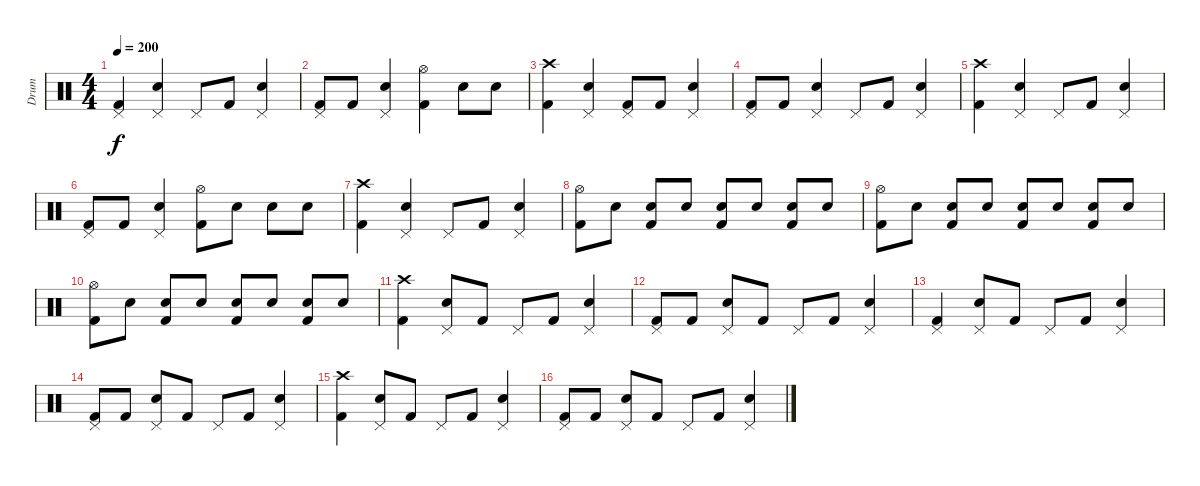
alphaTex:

\track ("Drum" "Drum") {instrument percussion}
\staff {score}
\articulation defaults
\ts (4 4)
\tempo 200
\clef neutral
\ks c
("Pedal Hi-Hat (hit)" "Kick (hit) 2").4{dy f} ("Pedal Hi-Hat (hit)" "Electric Snare (hit)").4 "Pedal Hi-Hat (hit)".8 "Kick (hit) 2".8 ("Pedal Hi-Hat (hit)" "Electric Snare (hit)").4 |
("Pedal Hi-Hat (hit)" "Kick (hit) 2").8 "Kick (hit) 2".8 ("Pedal Hi-Hat (hit)" "Electric Snare (hit)").4 ("Hi-Hat (open)" "Kick (hit) 2").4 "Electric Snare (hit)".8 "Electric Snare (hit)".8 |
("Crash high (hit)" "Kick (hit) 2").4 ("Pedal Hi-Hat (hit)" "Electric Snare (hit)").4 ("Pedal Hi-Hat (hit)" "Kick (hit) 2").8 "Kick (hit) 2".8 ("Pedal Hi-Hat (hit)" "Electric Snare (hit)").4 |
("Pedal Hi-Hat (hit)" "Kick (hit) 2").8 "Kick (hit) 2".8 ("Pedal Hi-Hat (hit)" "Electric Snare (hit)").4 "Pedal Hi-Hat (hit)".8 "Kick (hit) 2".8 ("Pedal Hi-Hat (hit)" "Electric Snare (hit)").4 |
("Crash high (hit)" "Kick (hit) 2").4 ("Pedal Hi-Hat (hit)" "Electric Snare (hit)").4 "Pedal Hi-Hat (hit)".8 "Kick (hit) 2".8 ("Pedal Hi-Hat (hit)" "Electric Snare (hit)").4 |
("Pedal Hi-Hat (hit)" "Kick (hit) 2").8 "Kick (hit) 2".8 ("Pedal Hi-Hat (hit)" "Electric Snare (hit)").4 ("Hi-Hat (open)" "Kick (hit) 2").8 "Electric Snare (hit)".8 "Electric Snare (hit)".8 "Electric Snare (hit)".8 |
("Crash high (hit)" "Kick (hit) 2").4 ("Pedal Hi-Hat (hit)" "Electric Snare (hit)").4 "Pedal Hi-Hat (hit)".8 "Kick (hit) 2".8 ("Pedal Hi-Hat (hit)" "Electric Snare (hit)").4 |
("Hi-Hat (open)" "Kick (hit) 2").8 "Electric Snare (hit)".8 ("Electric Snare (hit)" "Kick (hit) 2").8 "Electric Snare (hit)".8 ("Electric Snare (hit)" "Kick (hit) 2").8 "Electric Snare (hit)".8 ("Electric Snare (hit)" "Kick (hit) 2").8 "Electric Snare (hit)".8 |
("Hi-Hat (open)" "Kick (hit) 2").8 "Electric Snare (hit)".8 ("Electric Snare (hit)" "Kick (hit) 2").8 "Electric Snare (hit)".8 ("Electric Snare (hit)" "Kick (hit) 2").8 "Electric Snare (hit)".8 ("Electric Snare (hit)" "Kick (hit) 2").8 "Electric Snare (hit)".8 |
("Hi-Hat (open)" "Kick (hit) 2").8 "Electric Snare (hit)".8 ("Electric Snare (hit)" "Kick (hit) 2").8 "Electric Snare (hit)".8 ("Electric Snare (hit)" "Kick (hit) 2").8 "Electric Snare (hit)".8 ("Electric Snare (hit)" "Kick (hit) 2").8 "Electric Snare (hit)".8 |
("Crash high (hit)" "Kick (hit) 2").4 ("Pedal Hi-Hat (hit)" "Electric Snare (hit)").8 "Kick (hit) 2".8 "Pedal Hi-Hat (hit)".8 "Kick (hit) 2".8 ("Pedal Hi-Hat (hit)" "Electric Snare (hit)").4 |
("Pedal Hi-Hat (hit)" "Kick (hit) 2").8 "Kick (hit) 2".8 ("Pedal Hi-Hat (hit)" "Electric Snare (hit)").8 "Kick (hit) 2".8 "Pedal Hi-Hat (hit)".8 "Kick (hit) 2".8 ("Pedal Hi-Hat (hit)" "Electric Snare (hit)").4 |
("Pedal Hi-Hat (hit)" "Kick (hit) 2").4 ("Pedal Hi-Hat (hit)" "Electric Snare (hit)").8 "Kick (hit) 2".8 "Pedal Hi-Hat (hit)".8 "Kick (hit) 2".8 ("Pedal Hi-Hat (hit)" "Electric Snare (hit)").4 |
("Pedal Hi-Hat (hit)" "Kick (hit) 2").8 "Kick (hit) 2".8 ("Pedal Hi-Hat (hit)" "Electric Snare (hit)").8 "Kick (hit) 2".8 "Pedal Hi-Hat (hit)".8 "Kick (hit) 2".8 ("Pedal Hi-Hat (hit)" "Electric Snare (hit)").4 |
("Crash high (hit)" "Kick (hit) 2").4 ("Pedal Hi-Hat (hit)" "Electric Snare (hit)").8 "Kick (hit) 2".8 "Pedal Hi-Hat (hit)".8 "Kick (hit) 2".8 ("Pedal Hi-Hat (hit)" "Electric Snare (hit)").4 |
("Pedal Hi-Hat (hit)" "Kick (hit) 2").8 "Kick (hit) 2".8 ("Pedal Hi-Hat (hit)" "Electric Snare (hit)").8 "Kick (hit) 2".8 "Pedal Hi-Hat (hit)".8 "Kick (hit) 2".8 ("Pedal Hi-Hat (hit)" "Electric Snare (hit)").4
